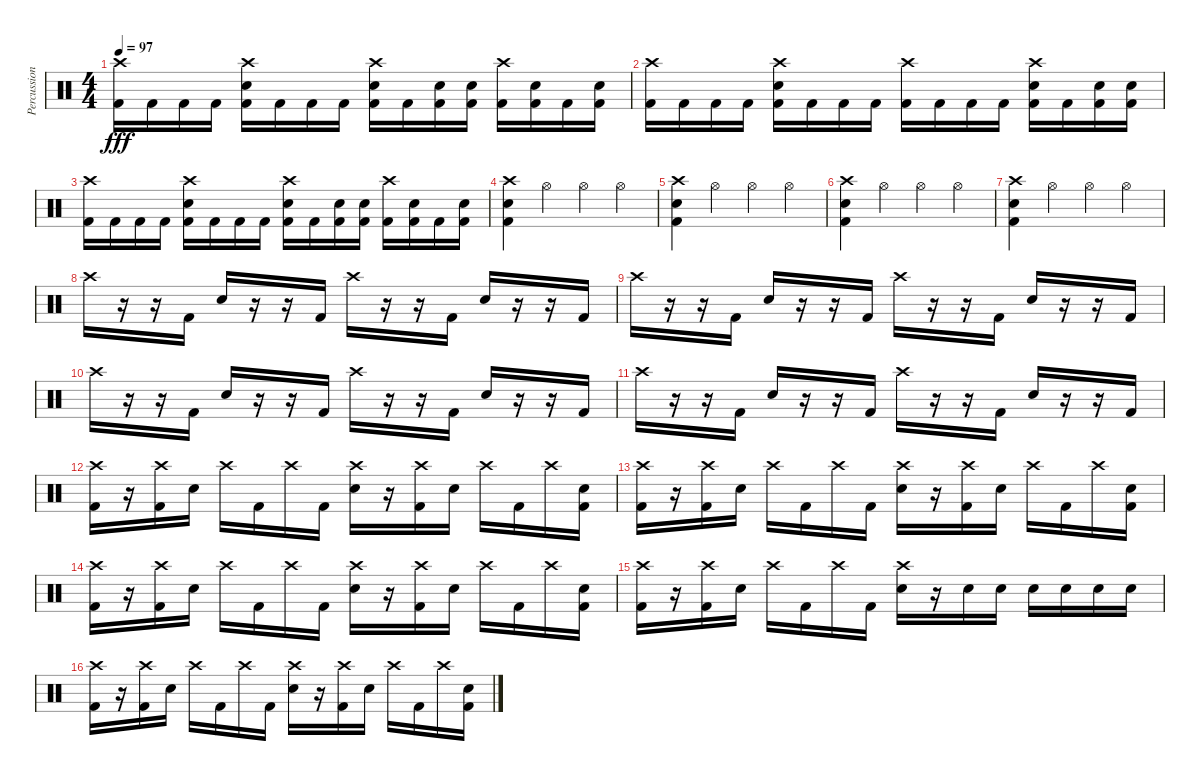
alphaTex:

\track ("Percussion" "Percussion") {instrument percussion}
\staff {score}
\articulation defaults
\ts (4 4)
\tempo 97
\clef neutral
\ks c
("Crash high (hit)" "Kick (hit) 2").16{dy fff} "Kick (hit) 2".16 "Kick (hit) 2".16 "Kick (hit) 2".16 ("Crash high (hit)" "Snare (hit) 2" "Kick (hit) 2").16 "Kick (hit) 2".16 "Kick (hit) 2".16 "Kick (hit) 2".16 ("Crash high (hit)" "Snare (hit) 2" "Kick (hit) 2").16 "Kick (hit) 2".16 ("Snare (hit) 2" "Kick (hit) 2").16 ("Snare (hit) 2" "Kick (hit) 2").16 ("Crash high (hit)" "Kick (hit) 2").16 ("Snare (hit) 2" "Kick (hit) 2").16 "Kick (hit) 2".16 ("Snare (hit) 2" "Kick (hit) 2").16 |
("Crash high (hit)" "Kick (hit) 2").16 "Kick (hit) 2".16 "Kick (hit) 2".16 "Kick (hit) 2".16 ("Crash high (hit)" "Snare (hit) 2" "Kick (hit) 2").16 "Kick (hit) 2".16 "Kick (hit) 2".16 "Kick (hit) 2".16 ("Crash high (hit)" "Kick (hit) 2").16 "Kick (hit) 2".16 "Kick (hit) 2".16 "Kick (hit) 2".16 ("Crash high (hit)" "Snare (hit) 2" "Kick (hit) 2").16 "Kick (hit) 2".16 ("Snare (hit) 2" "Kick (hit) 2").16 ("Snare (hit) 2" "Kick (hit) 2").16 |
("Crash high (hit)" "Kick (hit) 2").16 "Kick (hit) 2".16 "Kick (hit) 2".16 "Kick (hit) 2".16 ("Crash high (hit)" "Snare (hit) 2" "Kick (hit) 2").16 "Kick (hit) 2".16 "Kick (hit) 2".16 "Kick (hit) 2".16 ("Crash high (hit)" "Snare (hit) 2" "Kick (hit) 2").16 "Kick (hit) 2".16 ("Snare (hit) 2" "Kick (hit) 2").16 ("Snare (hit) 2" "Kick (hit) 2").16 ("Crash high (hit)" "Kick (hit) 2").16 ("Snare (hit) 2" "Kick (hit) 2").16 "Kick (hit) 2".16 ("Snare (hit) 2" "Kick (hit) 2").16 |
("Crash high (hit)" "Snare (hit) 2" "Kick (hit) 2").4 "Hi-Hat (open)".4 "Hi-Hat (open)".4 "Hi-Hat (open)".4 |
("Crash high (hit)" "Snare (hit) 2" "Kick (hit) 2").4 "Hi-Hat (open)".4 "Hi-Hat (open)".4 "Hi-Hat (open)".4 |
("Crash high (hit)" "Snare (hit) 2" "Kick (hit) 2").4 "Hi-Hat (open)".4 "Hi-Hat (open)".4 "Hi-Hat (open)".4 |
("Crash high (hit)" "Snare (hit) 2" "Kick (hit) 2").4 "Hi-Hat (open)".4 "Hi-Hat (open)".4 "Hi-Hat (open)".4 |
"Crash high (hit)".16 r.16 r.16 "Kick (hit) 2".16 "Snare (hit) 2".16 r.16 r.16 "Kick (hit) 2".16 "Crash high (hit)".16 r.16 r.16 "Kick (hit) 2".16 "Snare (hit) 2".16 r.16 r.16 "Kick (hit) 2".16 |
"Crash high (hit)".16 r.16 r.16 "Kick (hit) 2".16 "Snare (hit) 2".16 r.16 r.16 "Kick (hit) 2".16 "Crash high (hit)".16 r.16 r.16 "Kick (hit) 2".16 "Snare (hit) 2".16 r.16 r.16 "Kick (hit) 2".16 |
"Crash high (hit)".16 r.16 r.16 "Kick (hit) 2".16 "Snare (hit) 2".16 r.16 r.16 "Kick (hit) 2".16 "Crash high (hit)".16 r.16 r.16 "Kick (hit) 2".16 "Snare (hit) 2".16 r.16 r.16 "Kick (hit) 2".16 |
"Crash high (hit)".16 r.16 r.16 "Kick (hit) 2".16 "Snare (hit) 2".16 r.16 r.16 "Kick (hit) 2".16 "Crash high (hit)".16 r.16 r.16 "Kick (hit) 2".16 "Snare (hit) 2".16 r.16 r.16 "Kick (hit) 2".16 |
("Crash high (hit)" "Kick (hit) 2").16 r.16 ("Crash high (hit)" "Kick (hit) 2").16 "Snare (hit) 2".16 "Crash high (hit)".16 "Kick (hit) 2".16 "Crash high (hit)".16 "Kick (hit) 2".16 ("Crash high (hit)" "Snare (hit) 2").16 r.16 ("Crash high (hit)" "Kick (hit) 2").16 "Snare (hit) 2".16 "Crash high (hit)".16 "Kick (hit) 2".16 "Crash high (hit)".16 ("Snare (hit) 2" "Kick (hit) 2").16 |
("Crash high (hit)" "Kick (hit) 2").16 r.16 ("Crash high (hit)" "Kick (hit) 2").16 "Snare (hit) 2".16 "Crash high (hit)".16 "Kick (hit) 2".16 "Crash high (hit)".16 "Kick (hit) 2".16 ("Crash high (hit)" "Snare (hit) 2").16 r.16 ("Crash high (hit)" "Kick (hit) 2").16 "Snare (hit) 2".16 "Crash high (hit)".16 "Kick (hit) 2".16 "Crash high (hit)".16 ("Snare (hit) 2" "Kick (hit) 2").16 |
("Crash high (hit)" "Kick (hit) 2").16 r.16 ("Crash high (hit)" "Kick (hit) 2").16 "Snare (hit) 2".16 "Crash high (hit)".16 "Kick (hit) 2".16 "Crash high (hit)".16 "Kick (hit) 2".16 ("Crash high (hit)" "Snare (hit) 2").16 r.16 ("Crash high (hit)" "Kick (hit) 2").16 "Snare (hit) 2".16 "Crash high (hit)".16 "Kick (hit) 2".16 "Crash high (hit)".16 ("Snare (hit) 2" "Kick (hit) 2").16 |
("Crash high (hit)" "Kick (hit) 2").16 r.16 ("Crash high (hit)" "Kick (hit) 2").16 "Snare (hit) 2".16 "Crash high (hit)".16 "Kick (hit) 2".16 "Crash high (hit)".16 "Kick (hit) 2".16 ("Crash high (hit)" "Snare (hit) 2").16 r.16 "Snare (hit) 2".16 "Snare (hit) 2".16 "Snare (hit) 2".16 "Snare (hit) 2".16 "Snare (hit) 2".16 "Snare (hit) 2".16 |
("Crash high (hit)" "Kick (hit) 2").16 r.16 ("Crash high (hit)" "Kick (hit) 2").16 "Snare (hit) 2".16 "Crash high (hit)".16 "Kick (hit) 2".16 "Crash high (hit)".16 "Kick (hit) 2".16 ("Crash high (hit)" "Snare (hit) 2").16 r.16 ("Crash high (hit)" "Kick (hit) 2").16 "Snare (hit) 2".16 "Crash high (hit)".16 "Kick (hit) 2".16 "Crash high (hit)".16 ("Snare (hit) 2" "Kick (hit) 2").16
